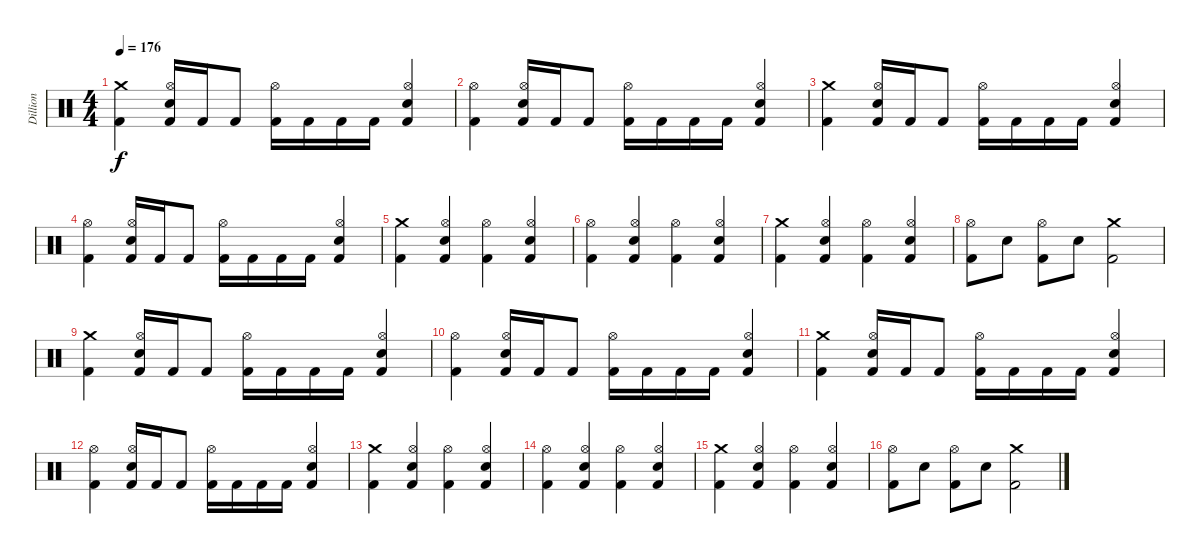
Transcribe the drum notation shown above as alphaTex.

\track ("Dillion" "Dillion") {instrument percussion}
\staff {score}
\articulation defaults
\ts (4 4)
\tempo 176
\clef neutral
\ks c
("Crash medium (hit)" "Kick (hit) 2").4{dy f} ("Hi-Hat (open)" "Electric Snare (hit)" "Kick (hit) 2").16 "Kick (hit) 2".16 "Kick (hit) 2".8 ("Hi-Hat (open)" "Kick (hit) 2").16 "Kick (hit) 2".16 "Kick (hit) 2".16 "Kick (hit) 2".16 ("Hi-Hat (open)" "Electric Snare (hit)" "Kick (hit) 2").4 |
("Hi-Hat (open)" "Kick (hit) 2").4 ("Hi-Hat (open)" "Electric Snare (hit)" "Kick (hit) 2").16 "Kick (hit) 2".16 "Kick (hit) 2".8 ("Hi-Hat (open)" "Kick (hit) 2").16 "Kick (hit) 2".16 "Kick (hit) 2".16 "Kick (hit) 2".16 ("Hi-Hat (open)" "Electric Snare (hit)" "Kick (hit) 2").4 |
("Crash medium (hit)" "Kick (hit) 2").4 ("Hi-Hat (open)" "Electric Snare (hit)" "Kick (hit) 2").16 "Kick (hit) 2".16 "Kick (hit) 2".8 ("Hi-Hat (open)" "Kick (hit) 2").16 "Kick (hit) 2".16 "Kick (hit) 2".16 "Kick (hit) 2".16 ("Hi-Hat (open)" "Electric Snare (hit)" "Kick (hit) 2").4 |
("Hi-Hat (open)" "Kick (hit) 2").4 ("Hi-Hat (open)" "Electric Snare (hit)" "Kick (hit) 2").16 "Kick (hit) 2".16 "Kick (hit) 2".8 ("Hi-Hat (open)" "Kick (hit) 2").16 "Kick (hit) 2".16 "Kick (hit) 2".16 "Kick (hit) 2".16 ("Hi-Hat (open)" "Electric Snare (hit)" "Kick (hit) 2").4 |
("Crash medium (hit)" "Kick (hit) 2").4 ("Hi-Hat (open)" "Electric Snare (hit)" "Kick (hit) 2").4 ("Hi-Hat (open)" "Kick (hit) 2").4 ("Hi-Hat (open)" "Electric Snare (hit)" "Kick (hit) 2").4 |
("Hi-Hat (open)" "Kick (hit) 2").4 ("Hi-Hat (open)" "Electric Snare (hit)" "Kick (hit) 2").4 ("Hi-Hat (open)" "Kick (hit) 2").4 ("Hi-Hat (open)" "Electric Snare (hit)" "Kick (hit) 2").4 |
("Crash medium (hit)" "Kick (hit) 2").4 ("Hi-Hat (open)" "Electric Snare (hit)" "Kick (hit) 2").4 ("Hi-Hat (open)" "Kick (hit) 2").4 ("Hi-Hat (open)" "Electric Snare (hit)" "Kick (hit) 2").4 |
("Hi-Hat (open)" "Kick (hit) 2").8 "Electric Snare (hit)".8 ("Hi-Hat (open)" "Kick (hit) 2").8 "Electric Snare (hit)".8 ("Crash medium (hit)" "Kick (hit) 2").2 |
("Crash medium (hit)" "Kick (hit) 2").4 ("Hi-Hat (open)" "Electric Snare (hit)" "Kick (hit) 2").16 "Kick (hit) 2".16 "Kick (hit) 2".8 ("Hi-Hat (open)" "Kick (hit) 2").16 "Kick (hit) 2".16 "Kick (hit) 2".16 "Kick (hit) 2".16 ("Hi-Hat (open)" "Electric Snare (hit)" "Kick (hit) 2").4 |
("Hi-Hat (open)" "Kick (hit) 2").4 ("Hi-Hat (open)" "Electric Snare (hit)" "Kick (hit) 2").16 "Kick (hit) 2".16 "Kick (hit) 2".8 ("Hi-Hat (open)" "Kick (hit) 2").16 "Kick (hit) 2".16 "Kick (hit) 2".16 "Kick (hit) 2".16 ("Hi-Hat (open)" "Electric Snare (hit)" "Kick (hit) 2").4 |
("Crash medium (hit)" "Kick (hit) 2").4 ("Hi-Hat (open)" "Electric Snare (hit)" "Kick (hit) 2").16 "Kick (hit) 2".16 "Kick (hit) 2".8 ("Hi-Hat (open)" "Kick (hit) 2").16 "Kick (hit) 2".16 "Kick (hit) 2".16 "Kick (hit) 2".16 ("Hi-Hat (open)" "Electric Snare (hit)" "Kick (hit) 2").4 |
("Hi-Hat (open)" "Kick (hit) 2").4 ("Hi-Hat (open)" "Electric Snare (hit)" "Kick (hit) 2").16 "Kick (hit) 2".16 "Kick (hit) 2".8 ("Hi-Hat (open)" "Kick (hit) 2").16 "Kick (hit) 2".16 "Kick (hit) 2".16 "Kick (hit) 2".16 ("Hi-Hat (open)" "Electric Snare (hit)" "Kick (hit) 2").4 |
("Crash medium (hit)" "Kick (hit) 2").4 ("Hi-Hat (open)" "Electric Snare (hit)" "Kick (hit) 2").4 ("Hi-Hat (open)" "Kick (hit) 2").4 ("Hi-Hat (open)" "Electric Snare (hit)" "Kick (hit) 2").4 |
("Hi-Hat (open)" "Kick (hit) 2").4 ("Hi-Hat (open)" "Electric Snare (hit)" "Kick (hit) 2").4 ("Hi-Hat (open)" "Kick (hit) 2").4 ("Hi-Hat (open)" "Electric Snare (hit)" "Kick (hit) 2").4 |
("Crash medium (hit)" "Kick (hit) 2").4 ("Hi-Hat (open)" "Electric Snare (hit)" "Kick (hit) 2").4 ("Hi-Hat (open)" "Kick (hit) 2").4 ("Hi-Hat (open)" "Electric Snare (hit)" "Kick (hit) 2").4 |
("Hi-Hat (open)" "Kick (hit) 2").8 "Electric Snare (hit)".8 ("Hi-Hat (open)" "Kick (hit) 2").8 "Electric Snare (hit)".8 ("Crash medium (hit)" "Kick (hit) 2").2
